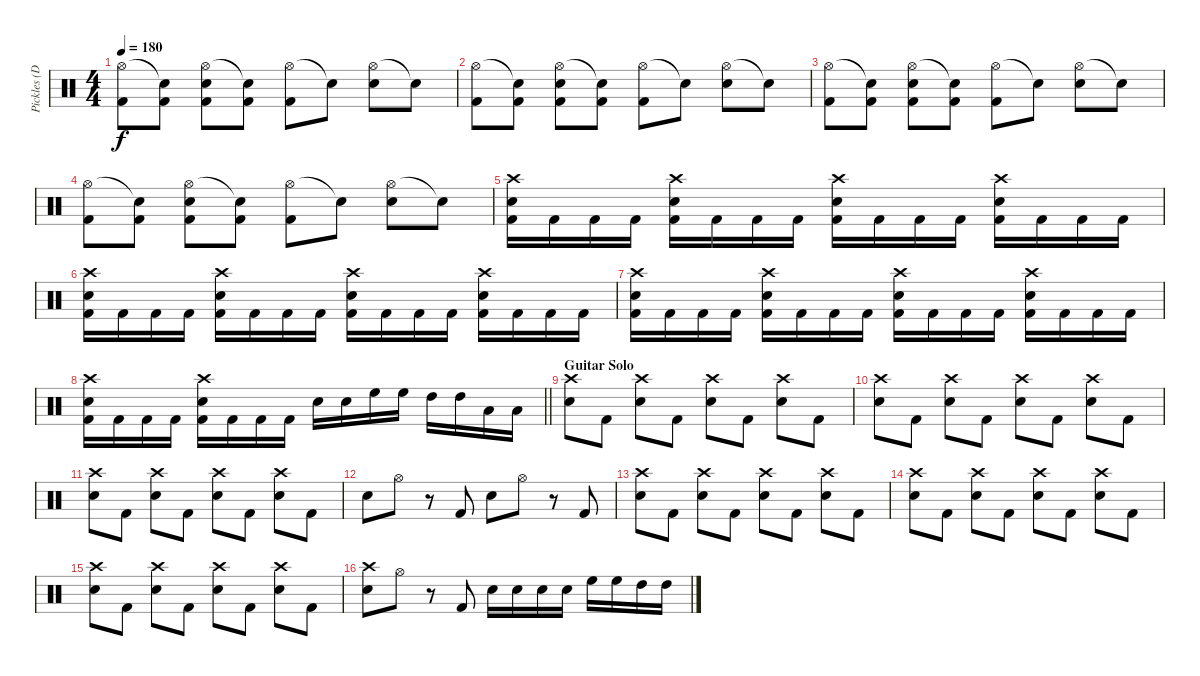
\track ("Pickles (Drums)" "Pickles (D") {instrument percussion}
\staff {score}
\articulation defaults
\ts (4 4)
\tempo 180
\clef neutral
\ks c
("Hi-Hat (open)" "Kick (hit) 2").8{dy f} ("Snare (hit)"{t} "Kick (hit) 2").8 ("Hi-Hat (open)" "Snare (hit) 2" "Kick (hit) 2").8 ("Snare (hit)"{t} "Kick (hit) 2").8 ("Hi-Hat (open)" "Kick (hit) 2").8 "Snare (hit)"{t}.8 ("Hi-Hat (open)" "Snare (hit) 2").8 "Snare (hit)"{t}.8 |
("Hi-Hat (open)" "Kick (hit) 2").8 ("Snare (hit)"{t} "Kick (hit) 2").8 ("Hi-Hat (open)" "Snare (hit) 2" "Kick (hit) 2").8 ("Snare (hit)"{t} "Kick (hit) 2").8 ("Hi-Hat (open)" "Kick (hit) 2").8 "Snare (hit)"{t}.8 ("Hi-Hat (open)" "Snare (hit) 2").8 "Snare (hit)"{t}.8 |
("Hi-Hat (open)" "Kick (hit) 2").8 ("Snare (hit)"{t} "Kick (hit) 2").8 ("Hi-Hat (open)" "Snare (hit) 2" "Kick (hit) 2").8 ("Snare (hit)"{t} "Kick (hit) 2").8 ("Hi-Hat (open)" "Kick (hit) 2").8 "Snare (hit)"{t}.8 ("Hi-Hat (open)" "Snare (hit) 2").8 "Snare (hit)"{t}.8 |
("Hi-Hat (open)" "Kick (hit) 2").8 ("Snare (hit)"{t} "Kick (hit) 2").8 ("Hi-Hat (open)" "Snare (hit) 2" "Kick (hit) 2").8 ("Snare (hit)"{t} "Kick (hit) 2").8 ("Hi-Hat (open)" "Kick (hit) 2").8 "Snare (hit)"{t}.8 ("Hi-Hat (open)" "Snare (hit) 2").8 "Snare (hit)"{t}.8 |
("Crash high (hit)" "Snare (hit) 2" "Kick (hit) 2").16 "Kick (hit) 2".16 "Kick (hit) 2".16 "Kick (hit) 2".16 ("Crash high (hit)" "Snare (hit) 2" "Kick (hit) 2").16 "Kick (hit) 2".16 "Kick (hit) 2".16 "Kick (hit) 2".16 ("Crash high (hit)" "Snare (hit) 2" "Kick (hit) 2").16 "Kick (hit) 2".16 "Kick (hit) 2".16 "Kick (hit) 2".16 ("Crash high (hit)" "Snare (hit) 2" "Kick (hit) 2").16 "Kick (hit) 2".16 "Kick (hit) 2".16 "Kick (hit) 2".16 |
("Crash high (hit)" "Snare (hit) 2" "Kick (hit) 2").16 "Kick (hit) 2".16 "Kick (hit) 2".16 "Kick (hit) 2".16 ("Crash high (hit)" "Snare (hit) 2" "Kick (hit) 2").16 "Kick (hit) 2".16 "Kick (hit) 2".16 "Kick (hit) 2".16 ("Crash high (hit)" "Snare (hit) 2" "Kick (hit) 2").16 "Kick (hit) 2".16 "Kick (hit) 2".16 "Kick (hit) 2".16 ("Crash high (hit)" "Snare (hit) 2" "Kick (hit) 2").16 "Kick (hit) 2".16 "Kick (hit) 2".16 "Kick (hit) 2".16 |
("Crash high (hit)" "Snare (hit) 2" "Kick (hit) 2").16 "Kick (hit) 2".16 "Kick (hit) 2".16 "Kick (hit) 2".16 ("Crash high (hit)" "Snare (hit) 2" "Kick (hit) 2").16 "Kick (hit) 2".16 "Kick (hit) 2".16 "Kick (hit) 2".16 ("Crash high (hit)" "Snare (hit) 2" "Kick (hit) 2").16 "Kick (hit) 2".16 "Kick (hit) 2".16 "Kick (hit) 2".16 ("Crash high (hit)" "Snare (hit) 2" "Kick (hit) 2").16 "Kick (hit) 2".16 "Kick (hit) 2".16 "Kick (hit) 2".16 |
\barLineRight lightlight
("Crash high (hit)" "Snare (hit) 2" "Kick (hit) 2").16 "Kick (hit) 2".16 "Kick (hit) 2".16 "Kick (hit) 2".16 ("Crash high (hit)" "Snare (hit) 2" "Kick (hit) 2").16 "Kick (hit) 2".16 "Kick (hit) 2".16 "Kick (hit) 2".16 "Snare (hit) 2".16 "Snare (hit) 2".16 "High Floor Tom (hit)".16 "High Floor Tom (hit)".16 "High Tom (hit)".16 "High Tom (hit)".16 "Low Tom (hit)".16 "Low Tom (hit)".16 |
\section ("" "Guitar Solo")
("Crash high (hit)" "Snare (hit) 2").8 "Kick (hit) 2".8 ("Crash high (hit)" "Snare (hit) 2").8 "Kick (hit) 2".8 ("Crash high (hit)" "Snare (hit) 2").8 "Kick (hit) 2".8 ("Crash high (hit)" "Snare (hit) 2").8 "Kick (hit) 2".8 |
("Crash high (hit)" "Snare (hit) 2").8 "Kick (hit) 2".8 ("Crash high (hit)" "Snare (hit) 2").8 "Kick (hit) 2".8 ("Crash high (hit)" "Snare (hit) 2").8 "Kick (hit) 2".8 ("Crash high (hit)" "Snare (hit) 2").8 "Kick (hit) 2".8 |
("Crash high (hit)" "Snare (hit) 2").8 "Kick (hit) 2".8 ("Crash high (hit)" "Snare (hit) 2").8 "Kick (hit) 2".8 ("Crash high (hit)" "Snare (hit) 2").8 "Kick (hit) 2".8 ("Crash high (hit)" "Snare (hit) 2").8 "Kick (hit) 2".8 |
"Snare (hit) 2".8 "Hi-Hat (open)".8 r.8{volume 0} "Kick (hit) 2".8{volume 16} "Snare (hit) 2".8 "Hi-Hat (open)".8 r.8{volume 0} "Kick (hit) 2".8{volume 16} |
("Crash high (hit)" "Snare (hit) 2").8 "Kick (hit) 2".8 ("Crash high (hit)" "Snare (hit) 2").8 "Kick (hit) 2".8 ("Crash high (hit)" "Snare (hit) 2").8 "Kick (hit) 2".8 ("Crash high (hit)" "Snare (hit) 2").8 "Kick (hit) 2".8 |
("Crash high (hit)" "Snare (hit) 2").8 "Kick (hit) 2".8 ("Crash high (hit)" "Snare (hit) 2").8 "Kick (hit) 2".8 ("Crash high (hit)" "Snare (hit) 2").8 "Kick (hit) 2".8 ("Crash high (hit)" "Snare (hit) 2").8 "Kick (hit) 2".8 |
("Crash high (hit)" "Snare (hit) 2").8 "Kick (hit) 2".8 ("Crash high (hit)" "Snare (hit) 2").8 "Kick (hit) 2".8 ("Crash high (hit)" "Snare (hit) 2").8 "Kick (hit) 2".8 ("Crash high (hit)" "Snare (hit) 2").8 "Kick (hit) 2".8 |
("Crash high (hit)" "Snare (hit) 2").8 "Hi-Hat (open)".8 r.8{volume 0} "Kick (hit) 2".8{volume 16} "Snare (hit) 2".16 "Snare (hit) 2".16 "Snare (hit) 2".16 "Snare (hit) 2".16 "High Floor Tom (hit)".16 "High Floor Tom (hit)".16 "High Tom (hit)".16 "High Tom (hit)".16
